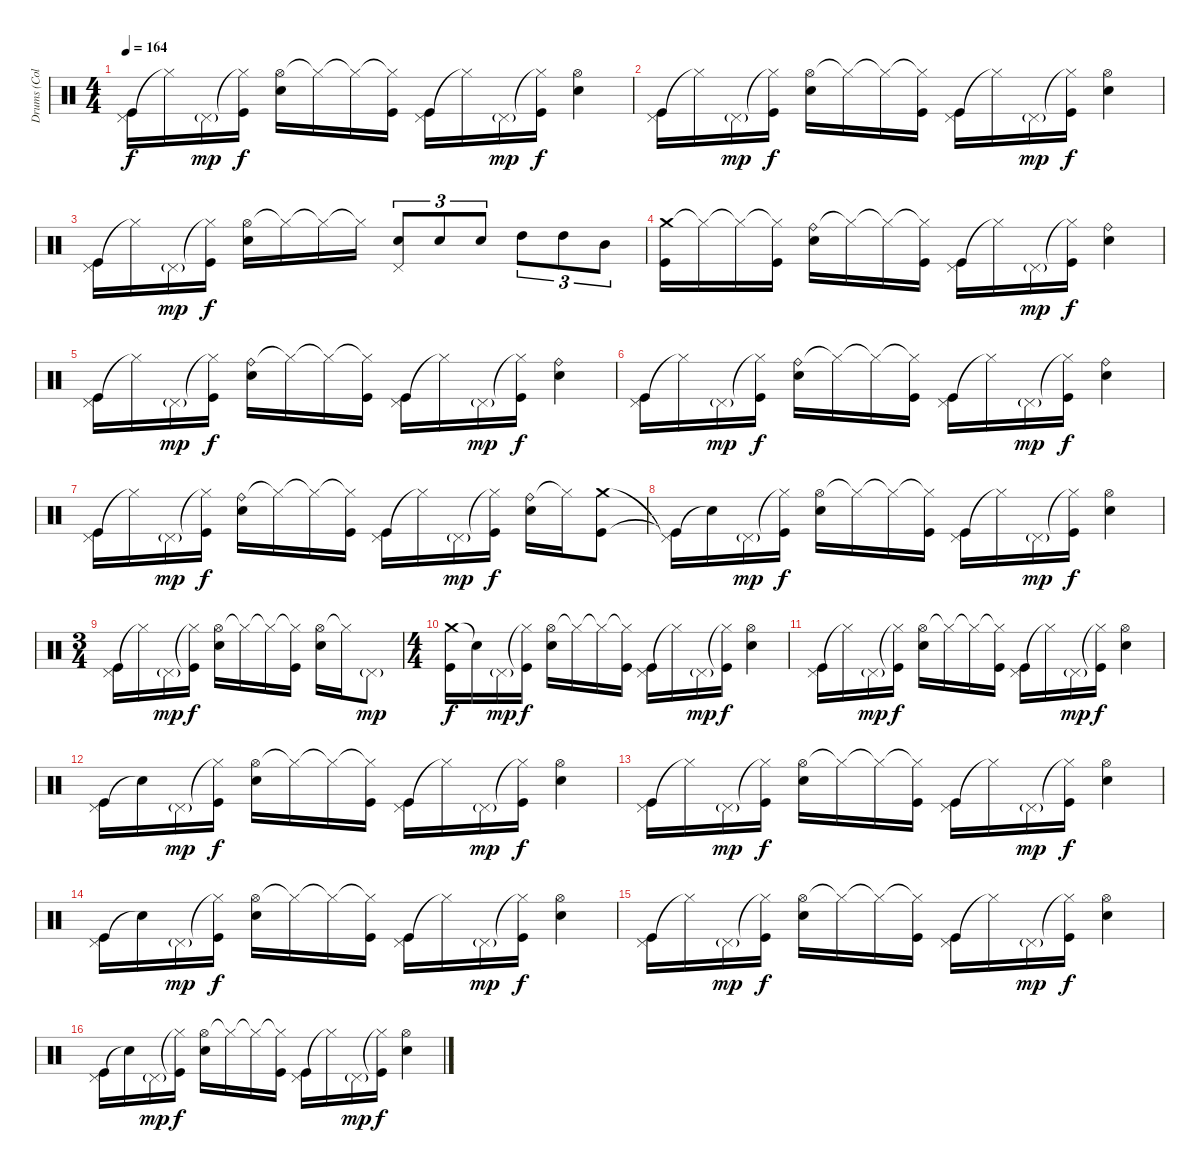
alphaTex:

\track ("Drums (Collins)" "Drums (Col") {instrument percussion}
\staff {score}
\articulation defaults
\ts (4 4)
\tempo 164
\clef neutral
\ks c
("Pedal Hi-Hat (hit)" "Kick (hit)").16{dy f} "Hi-Hat (closed)"{t}.16 "Pedal Hi-Hat (hit)"{g}.16{dy mp} ("Hi-Hat (closed)"{t} "Kick (hit)").16{dy f} ("Hi-Hat (open)" "Snare (hit) 2").16 "Hi-Hat (closed)"{t}.16 "Hi-Hat (closed)"{t}.16 ("Hi-Hat (closed)"{t} "Kick (hit)").16 ("Pedal Hi-Hat (hit)" "Kick (hit)").16 "Hi-Hat (closed)"{t}.16 "Pedal Hi-Hat (hit)"{g}.16{dy mp} ("Hi-Hat (closed)"{t} "Kick (hit)").16{dy f} ("Hi-Hat (open)" "Snare (hit) 2").4 |
("Pedal Hi-Hat (hit)" "Kick (hit)").16 "Hi-Hat (closed)"{t}.16 "Pedal Hi-Hat (hit)"{g}.16{dy mp} ("Hi-Hat (closed)"{t} "Kick (hit)").16{dy f} ("Hi-Hat (open)" "Snare (hit) 2").16 "Hi-Hat (closed)"{t}.16 "Hi-Hat (closed)"{t}.16 ("Hi-Hat (closed)"{t} "Kick (hit)").16 ("Pedal Hi-Hat (hit)" "Kick (hit)").16 "Hi-Hat (closed)"{t}.16 "Pedal Hi-Hat (hit)"{g}.16{dy mp} ("Hi-Hat (closed)"{t} "Kick (hit)").16{dy f} ("Hi-Hat (open)" "Snare (hit) 2").4 |
("Pedal Hi-Hat (hit)" "Kick (hit)").16 "Hi-Hat (closed)"{t}.16 "Pedal Hi-Hat (hit)"{g}.16{dy mp} ("Hi-Hat (closed)"{t} "Kick (hit)").16{dy f} ("Hi-Hat (open)" "Snare (hit) 2").16 "Hi-Hat (closed)"{t}.16 "Hi-Hat (closed)"{t}.16 "Hi-Hat (closed)"{t}.16 ("Pedal Hi-Hat (hit)" "Snare (hit) 2").8{tu (3 2)} "Snare (hit) 2".8{tu (3 2)} "Snare (hit) 2".8{tu (3 2)} "High Tom (hit)".8{tu (3 2)} "High Tom (hit)".8{tu (3 2)} "Mid Tom (hit)".8{tu (3 2)} |
("Crash medium (hit)" "Kick (hit)").16 "Hi-Hat (closed)"{t}.16 "Hi-Hat (closed)"{t}.16 ("Hi-Hat (closed)"{t} "Kick (hit)").16 ("Ride (bell)" "Snare (hit) 2").16 "Hi-Hat (closed)"{t}.16 "Hi-Hat (closed)"{t}.16 ("Hi-Hat (closed)"{t} "Kick (hit)").16 ("Pedal Hi-Hat (hit)" "Kick (hit)").16 "Hi-Hat (closed)"{t}.16 "Pedal Hi-Hat (hit)"{g}.16{dy mp} ("Hi-Hat (closed)"{t} "Kick (hit)").16{dy f} ("Ride (bell)" "Snare (hit) 2").4 |
("Pedal Hi-Hat (hit)" "Kick (hit)").16 "Hi-Hat (closed)"{t}.16 "Pedal Hi-Hat (hit)"{g}.16{dy mp} ("Hi-Hat (closed)"{t} "Kick (hit)").16{dy f} ("Ride (bell)" "Snare (hit) 2").16 "Hi-Hat (closed)"{t}.16 "Hi-Hat (closed)"{t}.16 ("Hi-Hat (closed)"{t} "Kick (hit)").16 ("Pedal Hi-Hat (hit)" "Kick (hit)").16 "Hi-Hat (closed)"{t}.16 "Pedal Hi-Hat (hit)"{g}.16{dy mp} ("Hi-Hat (closed)"{t} "Kick (hit)").16{dy f} ("Ride (bell)" "Snare (hit) 2").4 |
("Pedal Hi-Hat (hit)" "Kick (hit)").16 "Hi-Hat (closed)"{t}.16 "Pedal Hi-Hat (hit)"{g}.16{dy mp} ("Hi-Hat (closed)"{t} "Kick (hit)").16{dy f} ("Ride (bell)" "Snare (hit) 2").16 "Hi-Hat (closed)"{t}.16 "Hi-Hat (closed)"{t}.16 ("Hi-Hat (closed)"{t} "Kick (hit)").16 ("Pedal Hi-Hat (hit)" "Kick (hit)").16 "Hi-Hat (closed)"{t}.16 "Pedal Hi-Hat (hit)"{g}.16{dy mp} ("Hi-Hat (closed)"{t} "Kick (hit)").16{dy f} ("Ride (bell)" "Snare (hit) 2").4 |
("Pedal Hi-Hat (hit)" "Kick (hit)").16 "Hi-Hat (closed)"{t}.16 "Pedal Hi-Hat (hit)"{g}.16{dy mp} ("Hi-Hat (closed)"{t} "Kick (hit)").16{dy f} ("Ride (bell)" "Snare (hit) 2").16 "Hi-Hat (closed)"{t}.16 "Hi-Hat (closed)"{t}.16 ("Hi-Hat (closed)"{t} "Kick (hit)").16 ("Pedal Hi-Hat (hit)" "Kick (hit)").16 "Hi-Hat (closed)"{t}.16 "Pedal Hi-Hat (hit)"{g}.16{dy mp} ("Hi-Hat (closed)"{t} "Kick (hit)").16{dy f} ("Ride (bell)" "Snare (hit) 2").16 "Hi-Hat (closed)"{t}.16 ("Crash medium (hit)" "Kick (hit)").8 |
("Pedal Hi-Hat (hit)"{t} "Kick (hit)"{t}).16 "Snare (hit)"{t}.16 "Pedal Hi-Hat (hit)"{g}.16{dy mp} ("Hi-Hat (closed)"{t} "Kick (hit)").16{dy f} ("Hi-Hat (open)" "Snare (hit) 2").16 "Hi-Hat (closed)"{t}.16 "Hi-Hat (closed)"{t}.16 ("Hi-Hat (closed)"{t} "Kick (hit)").16 ("Pedal Hi-Hat (hit)" "Kick (hit)").16 "Hi-Hat (closed)"{t}.16 "Pedal Hi-Hat (hit)"{g}.16{dy mp} ("Hi-Hat (closed)"{t} "Kick (hit)").16{dy f} ("Hi-Hat (open)" "Snare (hit) 2").4 |
\ts (3 4)
("Pedal Hi-Hat (hit)" "Kick (hit)").16 "Hi-Hat (closed)"{t}.16 "Pedal Hi-Hat (hit)"{g}.16{dy mp} ("Hi-Hat (closed)"{t} "Kick (hit)").16{dy f} ("Hi-Hat (open)" "Snare (hit) 2").16 "Hi-Hat (closed)"{t}.16 "Hi-Hat (closed)"{t}.16 ("Hi-Hat (closed)"{t} "Kick (hit)").16 ("Hi-Hat (open)" "Snare (hit) 2").16 "Hi-Hat (closed)"{t}.16 "Pedal Hi-Hat (hit)"{g}.8{dy mp} |
\ts (4 4)
("Crash medium (hit)" "Kick (hit)").16{dy f} "Snare (hit)"{t}.16 "Pedal Hi-Hat (hit)"{g}.16{dy mp} ("Hi-Hat (closed)"{t} "Kick (hit)").16{dy f} ("Hi-Hat (open)" "Snare (hit) 2").16 "Hi-Hat (closed)"{t}.16 "Hi-Hat (closed)"{t}.16 ("Hi-Hat (closed)"{t} "Kick (hit)").16 ("Pedal Hi-Hat (hit)" "Kick (hit)").16 "Hi-Hat (closed)"{t}.16 "Pedal Hi-Hat (hit)"{g}.16{dy mp} ("Hi-Hat (closed)"{t} "Kick (hit)").16{dy f} ("Hi-Hat (open)" "Snare (hit) 2").4 |
("Pedal Hi-Hat (hit)" "Kick (hit)").16 "Hi-Hat (closed)"{t}.16 "Pedal Hi-Hat (hit)"{g}.16{dy mp} ("Hi-Hat (closed)"{t} "Kick (hit)").16{dy f} ("Hi-Hat (open)" "Snare (hit) 2").16 "Hi-Hat (closed)"{t}.16 "Hi-Hat (closed)"{t}.16 ("Hi-Hat (closed)"{t} "Kick (hit)").16 ("Pedal Hi-Hat (hit)" "Kick (hit)").16 "Hi-Hat (closed)"{t}.16 "Pedal Hi-Hat (hit)"{g}.16{dy mp} ("Hi-Hat (closed)"{t} "Kick (hit)").16{dy f} ("Hi-Hat (open)" "Snare (hit) 2").4 |
("Pedal Hi-Hat (hit)" "Kick (hit)").16 "Snare (hit)"{t}.16 "Pedal Hi-Hat (hit)"{g}.16{dy mp} ("Hi-Hat (closed)"{t} "Kick (hit)").16{dy f} ("Hi-Hat (open)" "Snare (hit) 2").16 "Hi-Hat (closed)"{t}.16 "Hi-Hat (closed)"{t}.16 ("Hi-Hat (closed)"{t} "Kick (hit)").16 ("Pedal Hi-Hat (hit)" "Kick (hit)").16 "Hi-Hat (closed)"{t}.16 "Pedal Hi-Hat (hit)"{g}.16{dy mp} ("Hi-Hat (closed)"{t} "Kick (hit)").16{dy f} ("Hi-Hat (open)" "Snare (hit) 2").4 |
("Pedal Hi-Hat (hit)" "Kick (hit)").16 "Hi-Hat (closed)"{t}.16 "Pedal Hi-Hat (hit)"{g}.16{dy mp} ("Hi-Hat (closed)"{t} "Kick (hit)").16{dy f} ("Hi-Hat (open)" "Snare (hit) 2").16 "Hi-Hat (closed)"{t}.16 "Hi-Hat (closed)"{t}.16 ("Hi-Hat (closed)"{t} "Kick (hit)").16 ("Pedal Hi-Hat (hit)" "Kick (hit)").16 "Hi-Hat (closed)"{t}.16 "Pedal Hi-Hat (hit)"{g}.16{dy mp} ("Hi-Hat (closed)"{t} "Kick (hit)").16{dy f} ("Hi-Hat (open)" "Snare (hit) 2").4 |
("Pedal Hi-Hat (hit)" "Kick (hit)").16 "Snare (hit)"{t}.16 "Pedal Hi-Hat (hit)"{g}.16{dy mp} ("Hi-Hat (closed)"{t} "Kick (hit)").16{dy f} ("Hi-Hat (open)" "Snare (hit) 2").16 "Hi-Hat (closed)"{t}.16 "Hi-Hat (closed)"{t}.16 ("Hi-Hat (closed)"{t} "Kick (hit)").16 ("Pedal Hi-Hat (hit)" "Kick (hit)").16 "Hi-Hat (closed)"{t}.16 "Pedal Hi-Hat (hit)"{g}.16{dy mp} ("Hi-Hat (closed)"{t} "Kick (hit)").16{dy f} ("Hi-Hat (open)" "Snare (hit) 2").4 |
("Pedal Hi-Hat (hit)" "Kick (hit)").16 "Hi-Hat (closed)"{t}.16 "Pedal Hi-Hat (hit)"{g}.16{dy mp} ("Hi-Hat (closed)"{t} "Kick (hit)").16{dy f} ("Hi-Hat (open)" "Snare (hit) 2").16 "Hi-Hat (closed)"{t}.16 "Hi-Hat (closed)"{t}.16 ("Hi-Hat (closed)"{t} "Kick (hit)").16 ("Pedal Hi-Hat (hit)" "Kick (hit)").16 "Hi-Hat (closed)"{t}.16 "Pedal Hi-Hat (hit)"{g}.16{dy mp} ("Hi-Hat (closed)"{t} "Kick (hit)").16{dy f} ("Hi-Hat (open)" "Snare (hit) 2").4 |
("Pedal Hi-Hat (hit)" "Kick (hit)").16 "Snare (hit)"{t}.16 "Pedal Hi-Hat (hit)"{g}.16{dy mp} ("Hi-Hat (closed)"{t} "Kick (hit)").16{dy f} ("Hi-Hat (open)" "Snare (hit) 2").16 "Hi-Hat (closed)"{t}.16 "Hi-Hat (closed)"{t}.16 ("Hi-Hat (closed)"{t} "Kick (hit)").16 ("Pedal Hi-Hat (hit)" "Kick (hit)").16 "Hi-Hat (closed)"{t}.16 "Pedal Hi-Hat (hit)"{g}.16{dy mp} ("Hi-Hat (closed)"{t} "Kick (hit)").16{dy f} ("Hi-Hat (open)" "Snare (hit) 2").4
